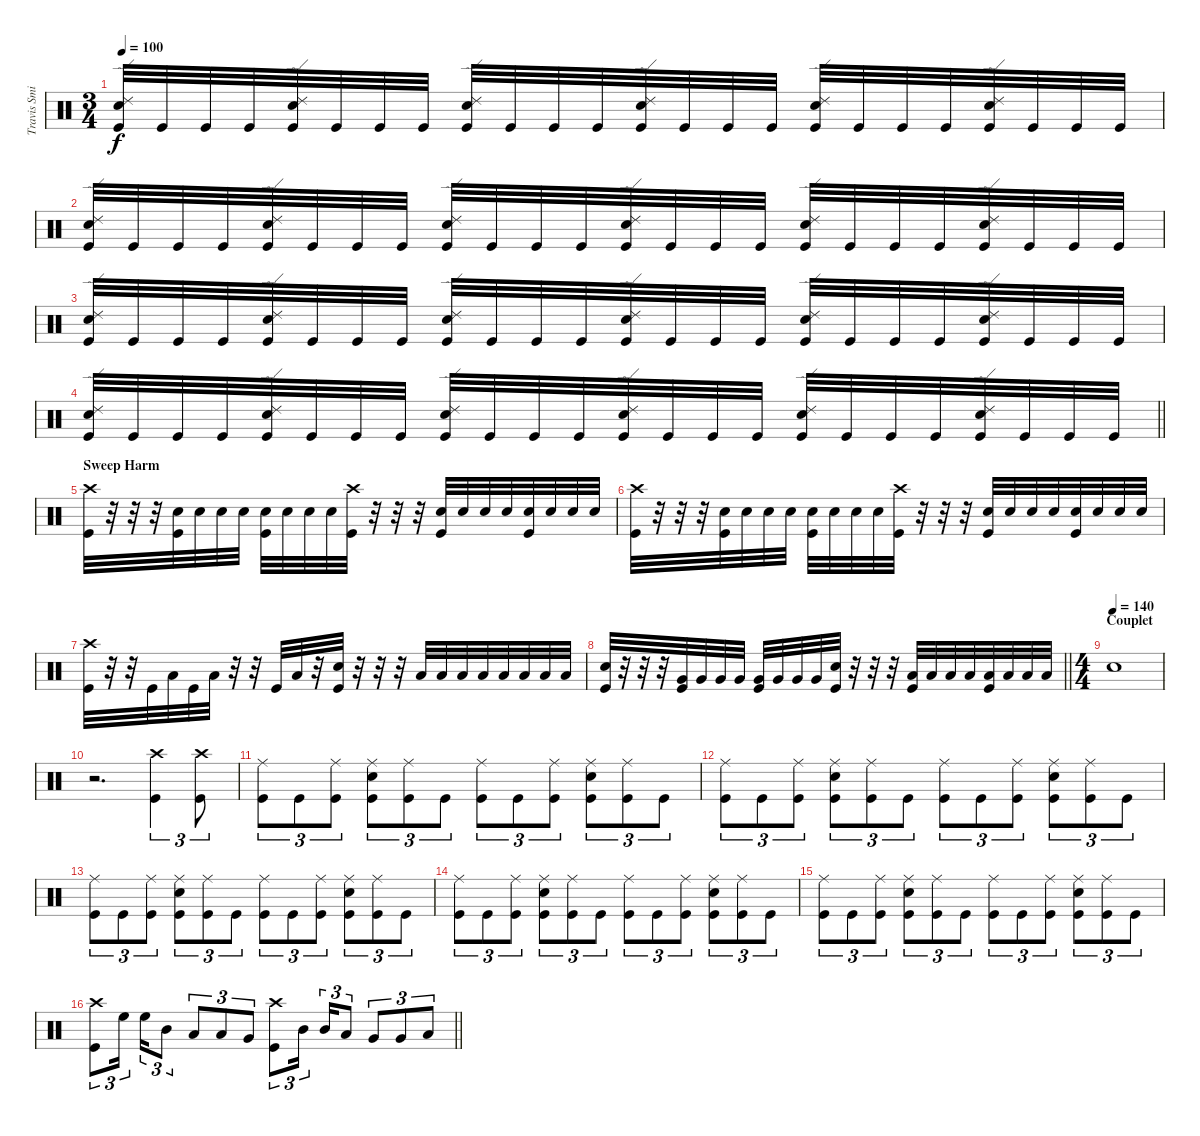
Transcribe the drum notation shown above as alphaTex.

\track ("Travis Smith" "Travis Smi") {instrument percussion}
\staff {score}
\articulation defaults
\ts (3 4)
\tempo 100
\clef neutral
\ks c
("Ride (edge) 2" "Snare (hit) 2" "Kick (hit)").32{dy f} "Kick (hit)".32 "Kick (hit)".32 "Kick (hit)".32 ("Ride (edge) 2" "Snare (hit) 2" "Kick (hit)").32 "Kick (hit)".32 "Kick (hit)".32 "Kick (hit)".32 ("Ride (edge) 2" "Snare (hit) 2" "Kick (hit)").32 "Kick (hit)".32 "Kick (hit)".32 "Kick (hit)".32 ("Ride (edge) 2" "Snare (hit) 2" "Kick (hit)").32 "Kick (hit)".32 "Kick (hit)".32 "Kick (hit)".32 ("Ride (edge) 2" "Snare (hit) 2" "Kick (hit)").32 "Kick (hit)".32 "Kick (hit)".32 "Kick (hit)".32 ("Ride (edge) 2" "Snare (hit) 2" "Kick (hit)").32 "Kick (hit)".32 "Kick (hit)".32 "Kick (hit)".32 |
("Ride (edge) 2" "Snare (hit) 2" "Kick (hit)").32 "Kick (hit)".32 "Kick (hit)".32 "Kick (hit)".32 ("Ride (edge) 2" "Snare (hit) 2" "Kick (hit)").32 "Kick (hit)".32 "Kick (hit)".32 "Kick (hit)".32 ("Ride (edge) 2" "Snare (hit) 2" "Kick (hit)").32 "Kick (hit)".32 "Kick (hit)".32 "Kick (hit)".32 ("Ride (edge) 2" "Snare (hit) 2" "Kick (hit)").32 "Kick (hit)".32 "Kick (hit)".32 "Kick (hit)".32 ("Ride (edge) 2" "Snare (hit) 2" "Kick (hit)").32 "Kick (hit)".32 "Kick (hit)".32 "Kick (hit)".32 ("Ride (edge) 2" "Snare (hit) 2" "Kick (hit)").32 "Kick (hit)".32 "Kick (hit)".32 "Kick (hit)".32 |
("Ride (edge) 2" "Snare (hit) 2" "Kick (hit)").32 "Kick (hit)".32 "Kick (hit)".32 "Kick (hit)".32 ("Ride (edge) 2" "Snare (hit) 2" "Kick (hit)").32 "Kick (hit)".32 "Kick (hit)".32 "Kick (hit)".32 ("Ride (edge) 2" "Snare (hit) 2" "Kick (hit)").32 "Kick (hit)".32 "Kick (hit)".32 "Kick (hit)".32 ("Ride (edge) 2" "Snare (hit) 2" "Kick (hit)").32 "Kick (hit)".32 "Kick (hit)".32 "Kick (hit)".32 ("Ride (edge) 2" "Snare (hit) 2" "Kick (hit)").32 "Kick (hit)".32 "Kick (hit)".32 "Kick (hit)".32 ("Ride (edge) 2" "Snare (hit) 2" "Kick (hit)").32 "Kick (hit)".32 "Kick (hit)".32 "Kick (hit)".32 |
\barLineRight lightlight
("Ride (edge) 2" "Snare (hit) 2" "Kick (hit)").32 "Kick (hit)".32 "Kick (hit)".32 "Kick (hit)".32 ("Ride (edge) 2" "Snare (hit) 2" "Kick (hit)").32 "Kick (hit)".32 "Kick (hit)".32 "Kick (hit)".32 ("Ride (edge) 2" "Snare (hit) 2" "Kick (hit)").32 "Kick (hit)".32 "Kick (hit)".32 "Kick (hit)".32 ("Ride (edge) 2" "Snare (hit) 2" "Kick (hit)").32 "Kick (hit)".32 "Kick (hit)".32 "Kick (hit)".32 ("Ride (edge) 2" "Snare (hit) 2" "Kick (hit)").32 "Kick (hit)".32 "Kick (hit)".32 "Kick (hit)".32 ("Ride (edge) 2" "Snare (hit) 2" "Kick (hit)").32 "Kick (hit)".32 "Kick (hit)".32 "Kick (hit)".32 |
\section ("" "Sweep Harm")
("Crash high (hit)" "Kick (hit)").32 r.32 r.32 r.32 ("Snare (hit) 2" "Kick (hit)").32 "Snare (hit) 2".32 "Snare (hit) 2".32 "Snare (hit) 2".32 ("Snare (hit) 2" "Kick (hit)").32 "Snare (hit) 2".32 "Snare (hit) 2".32 "Snare (hit) 2".32 ("Crash high (hit)" "Kick (hit)").32 r.32 r.32 r.32 ("Snare (hit) 2" "Kick (hit)").32 "Snare (hit) 2".32 "Snare (hit) 2".32 "Snare (hit) 2".32 ("Snare (hit) 2" "Kick (hit)").32 "Snare (hit) 2".32 "Snare (hit) 2".32 "Snare (hit) 2".32 |
("Crash high (hit)" "Kick (hit)").32 r.32 r.32 r.32 ("Snare (hit) 2" "Kick (hit)").32 "Snare (hit) 2".32 "Snare (hit) 2".32 "Snare (hit) 2".32 ("Snare (hit) 2" "Kick (hit)").32 "Snare (hit) 2".32 "Snare (hit) 2".32 "Snare (hit) 2".32 ("Crash high (hit)" "Kick (hit)").32 r.32 r.32 r.32 ("Snare (hit) 2" "Kick (hit)").32 "Snare (hit) 2".32 "Snare (hit) 2".32 "Snare (hit) 2".32 ("Snare (hit) 2" "Kick (hit)").32 "Snare (hit) 2".32 "Snare (hit) 2".32 "Snare (hit) 2".32 |
("Crash high (hit)" "Kick (hit)").32 r.32 r.32 "Kick (hit)".32 "Low Tom (hit)".32 "Kick (hit)".32 "Low Tom (hit)".32 r.32 r.32 "Kick (hit)".32 "Low Tom (hit)".32 r.32 ("Snare (hit) 2" "Kick (hit)").32 r.32 r.32 r.32 "Low Tom (hit)".32 "Low Tom (hit)".32 "Low Tom (hit)".32 "Low Tom (hit)".32 "Low Tom (hit)".32 "Low Tom (hit)".32 "Low Tom (hit)".32 "Low Tom (hit)".32 |
\barLineRight lightlight
("Snare (hit) 2" "Kick (hit)").32 r.32 r.32 r.32 ("Very Low Tom (hit)" "Kick (hit)").32 "Very Low Tom (hit)".32 "Very Low Tom (hit)".32 "Very Low Tom (hit)".32 ("Very Low Tom (hit)" "Kick (hit)").32 "Very Low Tom (hit)".32 "Very Low Tom (hit)".32 "Very Low Tom (hit)".32 ("Snare (hit) 2" "Kick (hit)").32 r.32 r.32 r.32 ("Low Floor Tom (hit)" "Kick (hit)").32 "Low Floor Tom (hit)".32 "Low Floor Tom (hit)".32 "Low Floor Tom (hit)".32 ("Low Floor Tom (hit)" "Kick (hit)").32 "Low Floor Tom (hit)".32 "Low Floor Tom (hit)".32 "Low Floor Tom (hit)".32 |
\ts (4 4)
\section ("" "Couplet")
\tempo (140)
"Electric Snare (hit)".1 |
r.2{d} ("Crash high (hit)" "Kick (hit)").4{tu (3 2)} ("Crash high (hit)" "Kick (hit)").8{tu (3 2)} |
("Ride (middle)" "Kick (hit)").8{tu (3 2)} "Kick (hit)".8{tu (3 2)} ("Ride (middle)" "Kick (hit)").8{tu (3 2)} ("Ride (middle)" "Snare (hit) 2" "Kick (hit)").8{tu (3 2)} ("Ride (middle)" "Kick (hit)").8{tu (3 2)} "Kick (hit)".8{tu (3 2)} ("Ride (middle)" "Kick (hit)").8{tu (3 2)} "Kick (hit)".8{tu (3 2)} ("Ride (middle)" "Kick (hit)").8{tu (3 2)} ("Ride (middle)" "Snare (hit) 2" "Kick (hit)").8{tu (3 2)} ("Ride (middle)" "Kick (hit)").8{tu (3 2)} "Kick (hit)".8{tu (3 2)} |
("Ride (middle)" "Kick (hit)").8{tu (3 2)} "Kick (hit)".8{tu (3 2)} ("Ride (middle)" "Kick (hit)").8{tu (3 2)} ("Ride (middle)" "Snare (hit) 2" "Kick (hit)").8{tu (3 2)} ("Ride (middle)" "Kick (hit)").8{tu (3 2)} "Kick (hit)".8{tu (3 2)} ("Ride (middle)" "Kick (hit)").8{tu (3 2)} "Kick (hit)".8{tu (3 2)} ("Ride (middle)" "Kick (hit)").8{tu (3 2)} ("Ride (middle)" "Snare (hit) 2" "Kick (hit)").8{tu (3 2)} ("Ride (middle)" "Kick (hit)").8{tu (3 2)} "Kick (hit)".8{tu (3 2)} |
("Ride (middle)" "Kick (hit)").8{tu (3 2)} "Kick (hit)".8{tu (3 2)} ("Ride (middle)" "Kick (hit)").8{tu (3 2)} ("Ride (middle)" "Snare (hit) 2" "Kick (hit)").8{tu (3 2)} ("Ride (middle)" "Kick (hit)").8{tu (3 2)} "Kick (hit)".8{tu (3 2)} ("Ride (middle)" "Kick (hit)").8{tu (3 2)} "Kick (hit)".8{tu (3 2)} ("Ride (middle)" "Kick (hit)").8{tu (3 2)} ("Ride (middle)" "Snare (hit) 2" "Kick (hit)").8{tu (3 2)} ("Ride (middle)" "Kick (hit)").8{tu (3 2)} "Kick (hit)".8{tu (3 2)} |
("Ride (middle)" "Kick (hit)").8{tu (3 2)} "Kick (hit)".8{tu (3 2)} ("Ride (middle)" "Kick (hit)").8{tu (3 2)} ("Ride (middle)" "Snare (hit) 2" "Kick (hit)").8{tu (3 2)} ("Ride (middle)" "Kick (hit)").8{tu (3 2)} "Kick (hit)".8{tu (3 2)} ("Ride (middle)" "Kick (hit)").8{tu (3 2)} "Kick (hit)".8{tu (3 2)} ("Ride (middle)" "Kick (hit)").8{tu (3 2)} ("Ride (middle)" "Snare (hit) 2" "Kick (hit)").8{tu (3 2)} ("Ride (middle)" "Kick (hit)").8{tu (3 2)} "Kick (hit)".8{tu (3 2)} |
("Ride (middle)" "Kick (hit)").8{tu (3 2)} "Kick (hit)".8{tu (3 2)} ("Ride (middle)" "Kick (hit)").8{tu (3 2)} ("Ride (middle)" "Snare (hit) 2" "Kick (hit)").8{tu (3 2)} ("Ride (middle)" "Kick (hit)").8{tu (3 2)} "Kick (hit)".8{tu (3 2)} ("Ride (middle)" "Kick (hit)").8{tu (3 2)} "Kick (hit)".8{tu (3 2)} ("Ride (middle)" "Kick (hit)").8{tu (3 2)} ("Ride (middle)" "Snare (hit) 2" "Kick (hit)").8{tu (3 2)} ("Ride (middle)" "Kick (hit)").8{tu (3 2)} "Kick (hit)".8{tu (3 2)} |
\barLineRight lightlight
("Crash high (hit)" "Kick (hit)").8{tu (3 2)} "High Floor Tom (hit)".16{tu (3 2) beam splitsecondary} "High Floor Tom (hit)".16{tu (3 2)} "Mid Tom (hit)".8{tu (3 2)} "Low Tom (hit)".8{tu (3 2)} "Low Tom (hit)".8{tu (3 2)} "Very Low Tom (hit)".8{tu (3 2)} ("Crash high (hit)" "Kick (hit)").8{tu (3 2)} "Mid Tom (hit)".16{tu (3 2) beam splitsecondary} "Mid Tom (hit)".16{tu (3 2)} "Low Tom (hit)".8{tu (3 2)} "Very Low Tom (hit)".8{tu (3 2)} "Very Low Tom (hit)".8{tu (3 2)} "Low Floor Tom (hit)".8{tu (3 2)}
